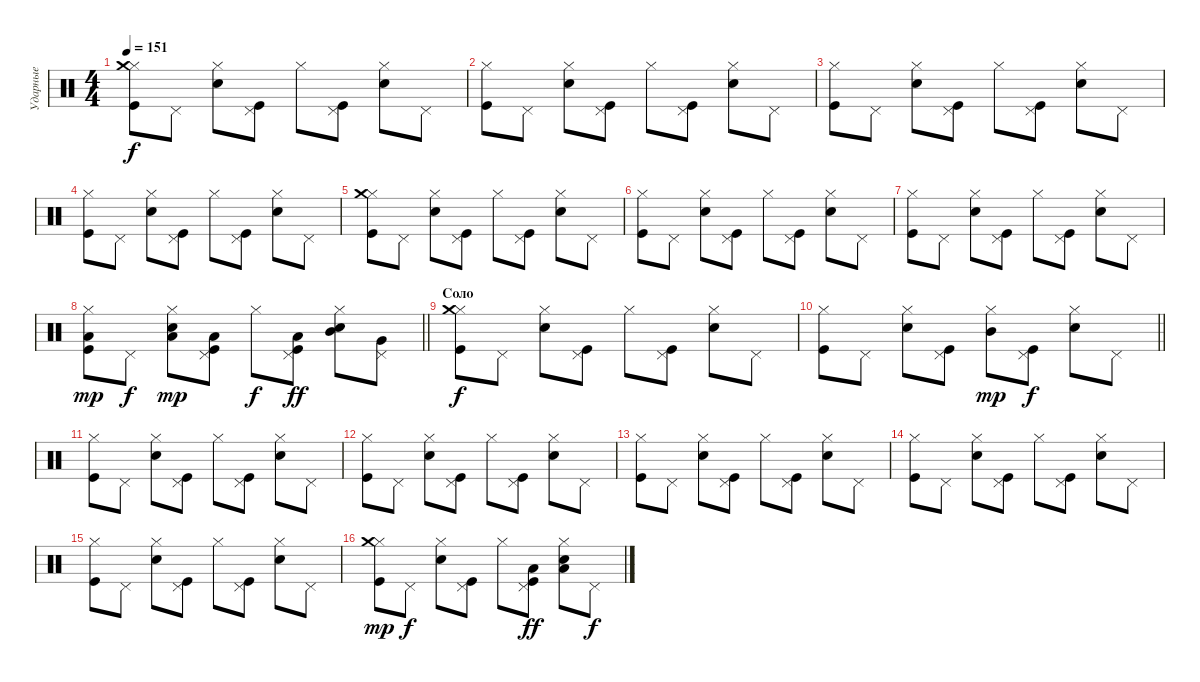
\track ("Ударные" "Ударные") {instrument percussion}
\staff {score}
\articulation defaults
\ts (4 4)
\tempo 151
\clef neutral
\ks c
("Hi-Hat (closed)" "Kick (hit)" "Crash medium (hit)").8{dy f} "Pedal Hi-Hat (hit)".8 ("Hi-Hat (closed)" "Snare (hit) 2").8 ("Pedal Hi-Hat (hit)" "Kick (hit)").8 "Hi-Hat (closed)".8 ("Pedal Hi-Hat (hit)" "Kick (hit)").8 ("Hi-Hat (closed)" "Snare (hit) 2").8 "Pedal Hi-Hat (hit)".8 |
("Hi-Hat (closed)" "Kick (hit)").8 "Pedal Hi-Hat (hit)".8 ("Hi-Hat (closed)" "Snare (hit) 2").8 ("Pedal Hi-Hat (hit)" "Kick (hit)").8 "Hi-Hat (closed)".8 ("Pedal Hi-Hat (hit)" "Kick (hit)").8 ("Hi-Hat (closed)" "Snare (hit) 2").8 "Pedal Hi-Hat (hit)".8 |
("Hi-Hat (closed)" "Kick (hit)").8 "Pedal Hi-Hat (hit)".8 ("Hi-Hat (closed)" "Snare (hit) 2").8 ("Pedal Hi-Hat (hit)" "Kick (hit)").8 "Hi-Hat (closed)".8 ("Pedal Hi-Hat (hit)" "Kick (hit)").8 ("Hi-Hat (closed)" "Snare (hit) 2").8 "Pedal Hi-Hat (hit)".8 |
("Hi-Hat (closed)" "Kick (hit)").8 "Pedal Hi-Hat (hit)".8 ("Hi-Hat (closed)" "Snare (hit) 2").8 ("Pedal Hi-Hat (hit)" "Kick (hit)").8 "Hi-Hat (closed)".8 ("Pedal Hi-Hat (hit)" "Kick (hit)").8 ("Hi-Hat (closed)" "Snare (hit) 2").8 "Pedal Hi-Hat (hit)".8 |
("Hi-Hat (closed)" "Kick (hit)" "Crash medium (hit)").8 "Pedal Hi-Hat (hit)".8 ("Hi-Hat (closed)" "Snare (hit) 2").8 ("Pedal Hi-Hat (hit)" "Kick (hit)").8 "Hi-Hat (closed)".8 ("Pedal Hi-Hat (hit)" "Kick (hit)").8 ("Hi-Hat (closed)" "Snare (hit) 2").8 "Pedal Hi-Hat (hit)".8 |
("Hi-Hat (closed)" "Kick (hit)").8 "Pedal Hi-Hat (hit)".8 ("Hi-Hat (closed)" "Snare (hit) 2").8 ("Pedal Hi-Hat (hit)" "Kick (hit)").8 "Hi-Hat (closed)".8 ("Pedal Hi-Hat (hit)" "Kick (hit)").8 ("Hi-Hat (closed)" "Snare (hit) 2").8 "Pedal Hi-Hat (hit)".8 |
("Hi-Hat (closed)" "Kick (hit)").8 "Pedal Hi-Hat (hit)".8 ("Hi-Hat (closed)" "Snare (hit) 2").8 ("Pedal Hi-Hat (hit)" "Kick (hit)").8 "Hi-Hat (closed)".8 ("Pedal Hi-Hat (hit)" "Kick (hit)").8 ("Hi-Hat (closed)" "Snare (hit) 2").8 "Pedal Hi-Hat (hit)".8 |
\barLineRight lightlight
("Hi-Hat (closed)" "Kick (hit)" "Low Floor Tom (hit)").8{dy mp} "Pedal Hi-Hat (hit)".8{dy f} ("Hi-Hat (closed)" "Snare (hit) 2" "Low Floor Tom (hit)").8{dy mp} ("Pedal Hi-Hat (hit)" "Kick (hit)" "Low Floor Tom (hit)").8 "Hi-Hat (closed)".8{dy f} ("Pedal Hi-Hat (hit)" "Kick (hit)" "Low Tom (hit)").8{dy ff} ("Hi-Hat (closed)" "Snare (hit) 2" "Mid Tom (hit)").8 ("Pedal Hi-Hat (hit)" "Very Low Tom (hit)").8 |
\section ("" "Соло")
("Hi-Hat (closed)" "Kick (hit)" "Crash medium (hit)").8{dy f} "Pedal Hi-Hat (hit)".8 ("Hi-Hat (closed)" "Snare (hit) 2").8 ("Pedal Hi-Hat (hit)" "Kick (hit)").8 "Hi-Hat (closed)".8 ("Pedal Hi-Hat (hit)" "Kick (hit)").8 ("Hi-Hat (closed)" "Snare (hit) 2").8 "Pedal Hi-Hat (hit)".8 |
\barLineRight lightlight
("Hi-Hat (closed)" "Kick (hit)").8 "Pedal Hi-Hat (hit)".8 ("Hi-Hat (closed)" "Snare (hit) 2").8 ("Pedal Hi-Hat (hit)" "Kick (hit)").8 ("Hi-Hat (closed)" "Mid Tom (hit)").8{dy mp} ("Pedal Hi-Hat (hit)" "Kick (hit)").8{dy f} ("Hi-Hat (closed)" "Snare (hit) 2").8 "Pedal Hi-Hat (hit)".8 |
("Hi-Hat (closed)" "Kick (hit)").8 "Pedal Hi-Hat (hit)".8 ("Hi-Hat (closed)" "Snare (hit) 2").8 ("Pedal Hi-Hat (hit)" "Kick (hit)").8 "Hi-Hat (closed)".8 ("Pedal Hi-Hat (hit)" "Kick (hit)").8 ("Hi-Hat (closed)" "Snare (hit) 2").8 "Pedal Hi-Hat (hit)".8 |
("Hi-Hat (closed)" "Kick (hit)").8 "Pedal Hi-Hat (hit)".8 ("Hi-Hat (closed)" "Snare (hit) 2").8 ("Pedal Hi-Hat (hit)" "Kick (hit)").8 "Hi-Hat (closed)".8 ("Pedal Hi-Hat (hit)" "Kick (hit)").8 ("Hi-Hat (closed)" "Snare (hit) 2").8 "Pedal Hi-Hat (hit)".8 |
("Hi-Hat (closed)" "Kick (hit)").8 "Pedal Hi-Hat (hit)".8 ("Hi-Hat (closed)" "Snare (hit) 2").8 ("Pedal Hi-Hat (hit)" "Kick (hit)").8 "Hi-Hat (closed)".8 ("Pedal Hi-Hat (hit)" "Kick (hit)").8 ("Hi-Hat (closed)" "Snare (hit) 2").8 "Pedal Hi-Hat (hit)".8 |
("Hi-Hat (closed)" "Kick (hit)").8 "Pedal Hi-Hat (hit)".8 ("Hi-Hat (closed)" "Snare (hit) 2").8 ("Pedal Hi-Hat (hit)" "Kick (hit)").8 "Hi-Hat (closed)".8 ("Pedal Hi-Hat (hit)" "Kick (hit)").8 ("Hi-Hat (closed)" "Snare (hit) 2").8 "Pedal Hi-Hat (hit)".8 |
("Hi-Hat (closed)" "Kick (hit)").8 "Pedal Hi-Hat (hit)".8 ("Hi-Hat (closed)" "Snare (hit) 2").8 ("Pedal Hi-Hat (hit)" "Kick (hit)").8 "Hi-Hat (closed)".8 ("Pedal Hi-Hat (hit)" "Kick (hit)").8 ("Hi-Hat (closed)" "Snare (hit) 2").8 "Pedal Hi-Hat (hit)".8 |
("Hi-Hat (closed)" "Kick (hit)" "Crash medium (hit)").8{dy mp} "Pedal Hi-Hat (hit)".8{dy f} ("Hi-Hat (closed)" "Snare (hit) 2").8 ("Pedal Hi-Hat (hit)" "Kick (hit)").8 "Hi-Hat (closed)".8 ("Pedal Hi-Hat (hit)" "Kick (hit)" "Low Tom (hit)").8{dy ff} ("Hi-Hat (closed)" "Snare (hit) 2" "Low Tom (hit)").8 "Pedal Hi-Hat (hit)".8{dy f}
